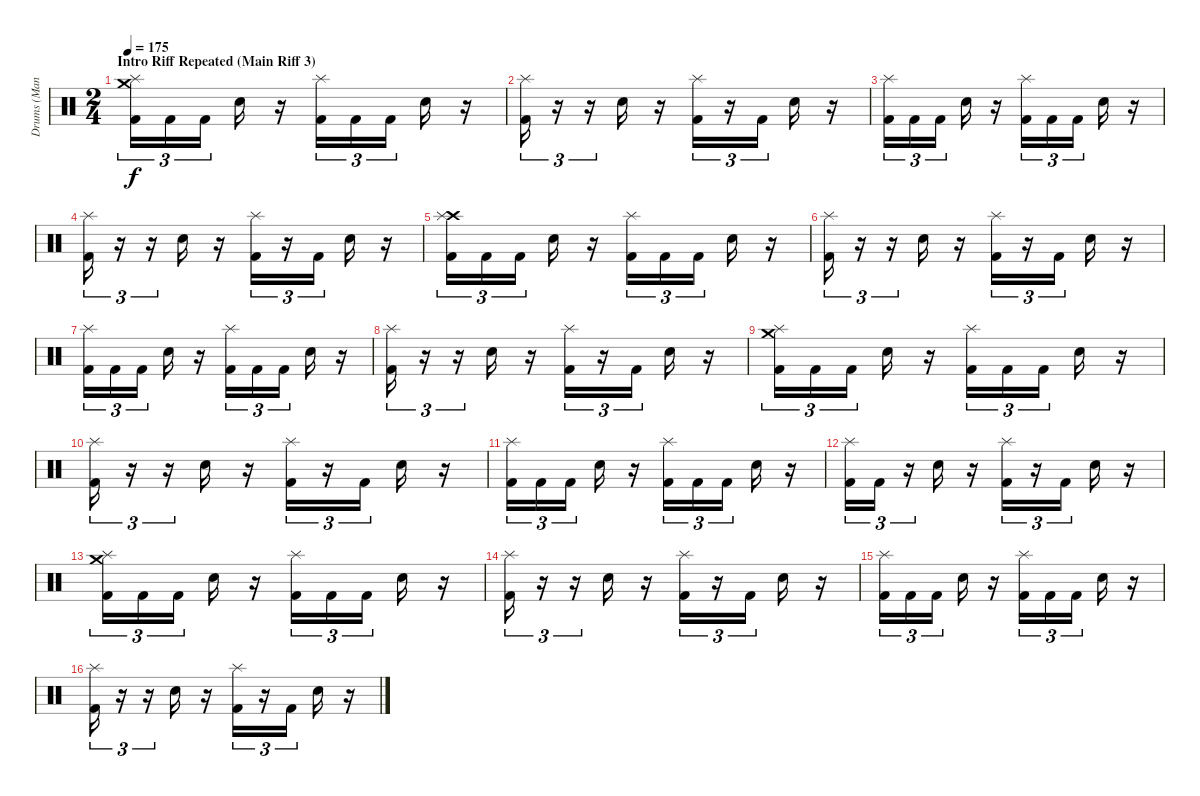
\track ("Drums (Mancino)" "Drums (Man") {instrument percussion}
\staff {score}
\articulation defaults
\ts (2 4)
\section ("" "Intro Riff Repeated (Main Riff 3)")
\tempo 175
\clef neutral
\ks c
("Crash medium (hit)" "Splash (hit)" "Kick (hit) 2").16{tu (3 2) dy f} "Kick (hit) 2".16{tu (3 2)} "Kick (hit) 2".16{tu (3 2)} "Electric Snare (hit)".16 r.16 ("Splash (hit)" "Kick (hit) 2").16{tu (3 2)} "Kick (hit) 2".16{tu (3 2)} "Kick (hit) 2".16{tu (3 2)} "Electric Snare (hit)".16 r.16 |
("Splash (hit)" "Kick (hit) 2").16{tu (3 2)} r.16{tu (3 2)} r.16{tu (3 2)} "Electric Snare (hit)".16 r.16 ("Splash (hit)" "Kick (hit) 2").16{tu (3 2)} r.16{tu (3 2)} "Kick (hit) 2".16{tu (3 2)} "Electric Snare (hit)".16 r.16 |
("Splash (hit)" "Kick (hit) 2").16{tu (3 2)} "Kick (hit) 2".16{tu (3 2)} "Kick (hit) 2".16{tu (3 2)} "Electric Snare (hit)".16 r.16 ("Splash (hit)" "Kick (hit) 2").16{tu (3 2)} "Kick (hit) 2".16{tu (3 2)} "Kick (hit) 2".16{tu (3 2)} "Electric Snare (hit)".16 r.16 |
("Splash (hit)" "Kick (hit) 2").16{tu (3 2)} r.16{tu (3 2)} r.16{tu (3 2)} "Electric Snare (hit)".16 r.16 ("Splash (hit)" "Kick (hit) 2").16{tu (3 2)} r.16{tu (3 2)} "Kick (hit) 2".16{tu (3 2)} "Electric Snare (hit)".16 r.16 |
("Crash high (hit)" "Splash (hit)" "Kick (hit) 2").16{tu (3 2)} "Kick (hit) 2".16{tu (3 2)} "Kick (hit) 2".16{tu (3 2)} "Electric Snare (hit)".16 r.16 ("Splash (hit)" "Kick (hit) 2").16{tu (3 2)} "Kick (hit) 2".16{tu (3 2)} "Kick (hit) 2".16{tu (3 2)} "Electric Snare (hit)".16 r.16 |
("Splash (hit)" "Kick (hit) 2").16{tu (3 2)} r.16{tu (3 2)} r.16{tu (3 2)} "Electric Snare (hit)".16 r.16 ("Splash (hit)" "Kick (hit) 2").16{tu (3 2)} r.16{tu (3 2)} "Kick (hit) 2".16{tu (3 2)} "Electric Snare (hit)".16 r.16 |
("Splash (hit)" "Kick (hit) 2").16{tu (3 2)} "Kick (hit) 2".16{tu (3 2)} "Kick (hit) 2".16{tu (3 2)} "Electric Snare (hit)".16 r.16 ("Splash (hit)" "Kick (hit) 2").16{tu (3 2)} "Kick (hit) 2".16{tu (3 2)} "Kick (hit) 2".16{tu (3 2)} "Electric Snare (hit)".16 r.16 |
("Splash (hit)" "Kick (hit) 2").16{tu (3 2)} r.16{tu (3 2)} r.16{tu (3 2)} "Electric Snare (hit)".16 r.16 ("Splash (hit)" "Kick (hit) 2").16{tu (3 2)} r.16{tu (3 2)} "Kick (hit) 2".16{tu (3 2)} "Electric Snare (hit)".16 r.16 |
("Crash medium (hit)" "Splash (hit)" "Kick (hit) 2").16{tu (3 2)} "Kick (hit) 2".16{tu (3 2)} "Kick (hit) 2".16{tu (3 2)} "Electric Snare (hit)".16 r.16 ("Splash (hit)" "Kick (hit) 2").16{tu (3 2)} "Kick (hit) 2".16{tu (3 2)} "Kick (hit) 2".16{tu (3 2)} "Electric Snare (hit)".16 r.16 |
("Splash (hit)" "Kick (hit) 2").16{tu (3 2)} r.16{tu (3 2)} r.16{tu (3 2)} "Electric Snare (hit)".16 r.16 ("Splash (hit)" "Kick (hit) 2").16{tu (3 2)} r.16{tu (3 2)} "Kick (hit) 2".16{tu (3 2)} "Electric Snare (hit)".16 r.16 |
("Splash (hit)" "Kick (hit) 2").16{tu (3 2)} "Kick (hit) 2".16{tu (3 2)} "Kick (hit) 2".16{tu (3 2)} "Electric Snare (hit)".16 r.16 ("Splash (hit)" "Kick (hit) 2").16{tu (3 2)} "Kick (hit) 2".16{tu (3 2)} "Kick (hit) 2".16{tu (3 2)} "Electric Snare (hit)".16 r.16 |
("Splash (hit)" "Kick (hit) 2").16{tu (3 2)} "Kick (hit) 2".16{tu (3 2)} r.16{tu (3 2)} "Electric Snare (hit)".16 r.16 ("Splash (hit)" "Kick (hit) 2").16{tu (3 2)} r.16{tu (3 2)} "Kick (hit) 2".16{tu (3 2)} "Electric Snare (hit)".16 r.16 |
("Crash medium (hit)" "Splash (hit)" "Kick (hit) 2").16{tu (3 2)} "Kick (hit) 2".16{tu (3 2)} "Kick (hit) 2".16{tu (3 2)} "Electric Snare (hit)".16 r.16 ("Splash (hit)" "Kick (hit) 2").16{tu (3 2)} "Kick (hit) 2".16{tu (3 2)} "Kick (hit) 2".16{tu (3 2)} "Electric Snare (hit)".16 r.16 |
("Splash (hit)" "Kick (hit) 2").16{tu (3 2)} r.16{tu (3 2)} r.16{tu (3 2)} "Electric Snare (hit)".16 r.16 ("Splash (hit)" "Kick (hit) 2").16{tu (3 2)} r.16{tu (3 2)} "Kick (hit) 2".16{tu (3 2)} "Electric Snare (hit)".16 r.16 |
("Splash (hit)" "Kick (hit) 2").16{tu (3 2)} "Kick (hit) 2".16{tu (3 2)} "Kick (hit) 2".16{tu (3 2)} "Electric Snare (hit)".16 r.16 ("Splash (hit)" "Kick (hit) 2").16{tu (3 2)} "Kick (hit) 2".16{tu (3 2)} "Kick (hit) 2".16{tu (3 2)} "Electric Snare (hit)".16 r.16 |
("Splash (hit)" "Kick (hit) 2").16{tu (3 2)} r.16{tu (3 2)} r.16{tu (3 2)} "Electric Snare (hit)".16 r.16 ("Splash (hit)" "Kick (hit) 2").16{tu (3 2)} r.16{tu (3 2)} "Kick (hit) 2".16{tu (3 2)} "Electric Snare (hit)".16 r.16
